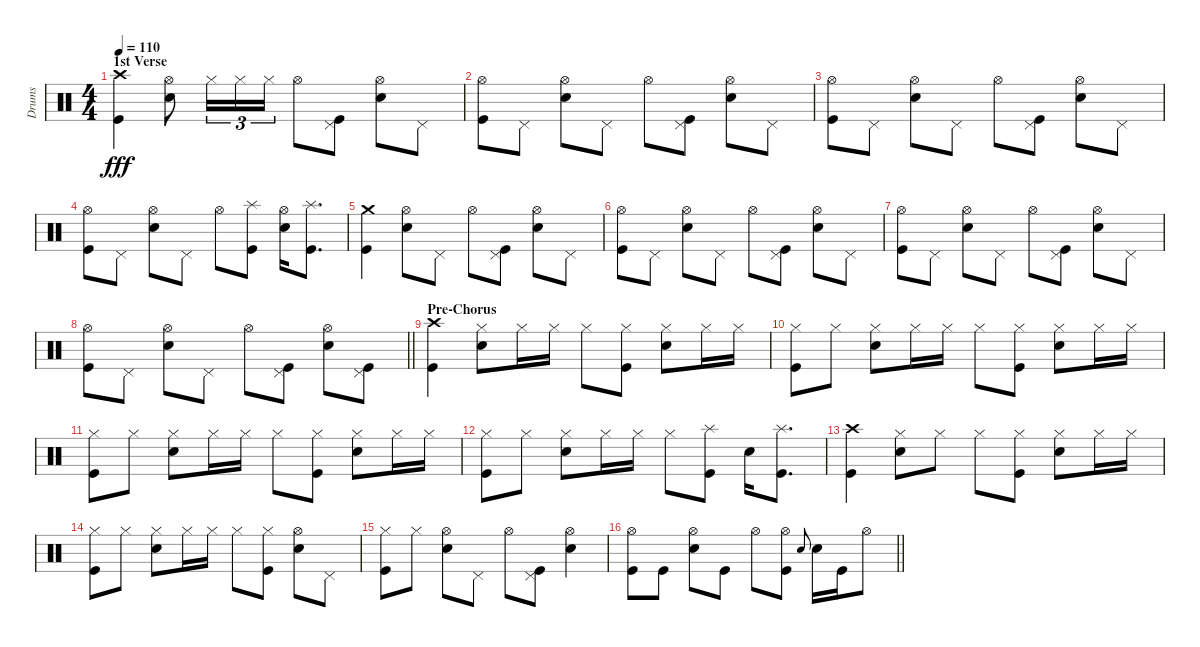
\track ("Drums" "Drums") {instrument percussion}
\staff {score}
\articulation defaults
\ts (4 4)
\section ("" "1st Verse")
\tempo 110
\clef neutral
\ks c
("Crash high (hit)" "Kick (hit)").4{dy fff} ("Hi-Hat (open)" "Snare (hit) 2").8 "Hi-Hat (closed)".16{tu (3 2)} "Hi-Hat (closed)".16{tu (3 2)} "Hi-Hat (closed)".16{tu (3 2)} "Hi-Hat (open)".8 ("Pedal Hi-Hat (hit)" "Kick (hit)").8 ("Hi-Hat (open)" "Snare (hit) 2").8 "Pedal Hi-Hat (hit)".8 |
("Hi-Hat (open)" "Kick (hit)").8 "Pedal Hi-Hat (hit)".8 ("Hi-Hat (open)" "Snare (hit) 2").8 "Pedal Hi-Hat (hit)".8 "Hi-Hat (open)".8 ("Pedal Hi-Hat (hit)" "Kick (hit)").8 ("Hi-Hat (open)" "Snare (hit) 2").8 "Pedal Hi-Hat (hit)".8 |
("Hi-Hat (open)" "Kick (hit)").8 "Pedal Hi-Hat (hit)".8 ("Hi-Hat (open)" "Snare (hit) 2").8 "Pedal Hi-Hat (hit)".8 "Hi-Hat (open)".8 ("Pedal Hi-Hat (hit)" "Kick (hit)").8 ("Hi-Hat (open)" "Snare (hit) 2").8 "Pedal Hi-Hat (hit)".8 |
("Hi-Hat (open)" "Kick (hit)").8 "Pedal Hi-Hat (hit)".8 ("Hi-Hat (open)" "Snare (hit) 2").8 "Pedal Hi-Hat (hit)".8 "Hi-Hat (open)".8 ("Splash (hit)" "Kick (hit)").8 ("Hi-Hat (open)" "Snare (hit) 2").16 ("Splash (hit)" "Kick (hit)").8{d} |
("Crash medium (hit)" "Kick (hit)").4 ("Hi-Hat (open)" "Snare (hit) 2").8 "Pedal Hi-Hat (hit)".8 "Hi-Hat (open)".8 ("Pedal Hi-Hat (hit)" "Kick (hit)").8 ("Hi-Hat (open)" "Snare (hit) 2").8 "Pedal Hi-Hat (hit)".8 |
("Hi-Hat (open)" "Kick (hit)").8 "Pedal Hi-Hat (hit)".8 ("Hi-Hat (open)" "Snare (hit) 2").8 "Pedal Hi-Hat (hit)".8 "Hi-Hat (open)".8 ("Pedal Hi-Hat (hit)" "Kick (hit)").8 ("Hi-Hat (open)" "Snare (hit) 2").8 "Pedal Hi-Hat (hit)".8 |
("Hi-Hat (open)" "Kick (hit)").8 "Pedal Hi-Hat (hit)".8 ("Hi-Hat (open)" "Snare (hit) 2").8 "Pedal Hi-Hat (hit)".8 "Hi-Hat (open)".8 ("Pedal Hi-Hat (hit)" "Kick (hit)").8 ("Hi-Hat (open)" "Snare (hit) 2").8 "Pedal Hi-Hat (hit)".8 |
\barLineRight lightlight
("Hi-Hat (open)" "Kick (hit)").8 "Pedal Hi-Hat (hit)".8 ("Hi-Hat (open)" "Snare (hit) 2").8 "Pedal Hi-Hat (hit)".8 "Hi-Hat (open)".8 ("Pedal Hi-Hat (hit)" "Kick (hit)").8 ("Hi-Hat (open)" "Snare (hit) 2").8 ("Pedal Hi-Hat (hit)" "Kick (hit)").8 |
\section ("" "Pre-Chorus")
("Crash high (hit)" "Kick (hit)").4 ("Hi-Hat (closed)" "Snare (hit) 2").8 "Hi-Hat (closed)".16 "Hi-Hat (closed)".16 "Hi-Hat (closed)".8 ("Hi-Hat (closed)" "Kick (hit)").8 ("Hi-Hat (closed)" "Snare (hit) 2").8 "Hi-Hat (closed)".16 "Hi-Hat (closed)".16 |
("Hi-Hat (closed)" "Kick (hit)").8 "Hi-Hat (closed)".8 ("Hi-Hat (closed)" "Snare (hit) 2").8 "Hi-Hat (closed)".16 "Hi-Hat (closed)".16 "Hi-Hat (closed)".8 ("Hi-Hat (closed)" "Kick (hit)").8 ("Hi-Hat (closed)" "Snare (hit) 2").8 "Hi-Hat (closed)".16 "Hi-Hat (closed)".16 |
("Hi-Hat (closed)" "Kick (hit)").8 "Hi-Hat (closed)".8 ("Hi-Hat (closed)" "Snare (hit) 2").8 "Hi-Hat (closed)".16 "Hi-Hat (closed)".16 "Hi-Hat (closed)".8 ("Hi-Hat (closed)" "Kick (hit)").8 ("Hi-Hat (closed)" "Snare (hit) 2").8 "Hi-Hat (closed)".16 "Hi-Hat (closed)".16 |
("Hi-Hat (closed)" "Kick (hit)").8 "Hi-Hat (closed)".8 ("Hi-Hat (closed)" "Snare (hit) 2").8 "Hi-Hat (closed)".16 "Hi-Hat (closed)".16 "Hi-Hat (closed)".8 ("Splash (hit)" "Kick (hit)").8 "Snare (hit) 2".16 ("Splash (hit)" "Kick (hit)").8{d} |
("Crash high (hit)" "Kick (hit)").4 ("Hi-Hat (closed)" "Snare (hit) 2").8 "Hi-Hat (closed)".8 "Hi-Hat (closed)".8 ("Hi-Hat (closed)" "Kick (hit)").8 ("Hi-Hat (closed)" "Snare (hit) 2").8 "Hi-Hat (closed)".16 "Hi-Hat (closed)".16 |
("Hi-Hat (closed)" "Kick (hit)").8 "Hi-Hat (closed)".8 ("Hi-Hat (closed)" "Snare (hit) 2").8 "Hi-Hat (closed)".16 "Hi-Hat (closed)".16 "Hi-Hat (closed)".8 ("Hi-Hat (closed)" "Kick (hit)").8 ("Hi-Hat (open)" "Snare (hit) 2").8 "Pedal Hi-Hat (hit)".8 |
("Hi-Hat (closed)" "Kick (hit)").8 "Hi-Hat (closed)".8 ("Hi-Hat (open)" "Snare (hit) 2").8 "Pedal Hi-Hat (hit)".8 "Hi-Hat (open)".8 ("Pedal Hi-Hat (hit)" "Kick (hit)").8 ("Hi-Hat (open)" "Snare (hit) 2").4 |
\barLineRight lightlight
("Hi-Hat (open)" "Kick (hit)").8 "Kick (hit)".8 ("Hi-Hat (open)" "Snare (hit) 2").8 "Kick (hit)".8 "Hi-Hat (open)".8 ("Hi-Hat (open)" "Kick (hit)").8 "Snare (hit) 2".8{gr onbeat} "Snare (hit) 2".16 "Kick (hit)".16 "Hi-Hat (open)".8
